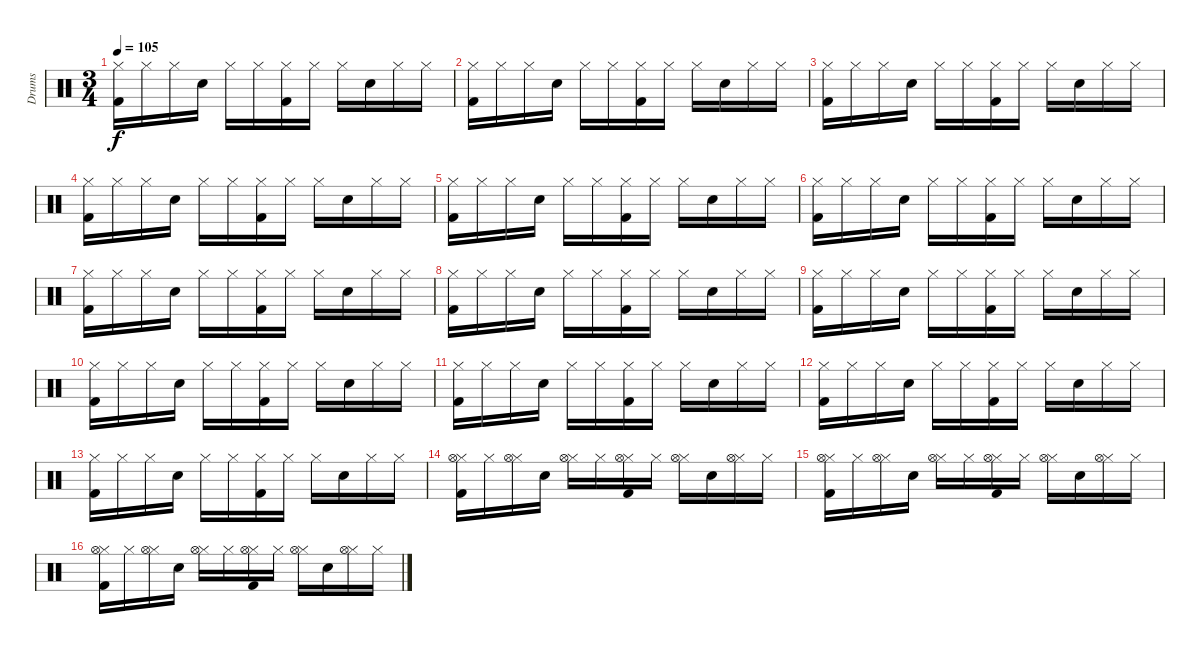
\track ("Drums" "Drums") {instrument percussion}
\staff {score}
\articulation defaults
\ts (3 4)
\tempo 105
\clef neutral
\ks c
("Hi-Hat (closed)" "Kick (hit) 2").16{dy f} "Hi-Hat (closed)".16 "Hi-Hat (closed)".16 "Snare (hit) 2".16 "Hi-Hat (closed)".16 "Hi-Hat (closed)".16 ("Hi-Hat (closed)" "Kick (hit) 2").16 "Hi-Hat (closed)".16 "Hi-Hat (closed)".16 "Snare (hit) 2".16 "Hi-Hat (closed)".16 "Hi-Hat (closed)".16 |
("Hi-Hat (closed)" "Kick (hit) 2").16 "Hi-Hat (closed)".16 "Hi-Hat (closed)".16 "Snare (hit) 2".16 "Hi-Hat (closed)".16 "Hi-Hat (closed)".16 ("Hi-Hat (closed)" "Kick (hit) 2").16 "Hi-Hat (closed)".16 "Hi-Hat (closed)".16 "Snare (hit) 2".16 "Hi-Hat (closed)".16 "Hi-Hat (closed)".16 |
("Hi-Hat (closed)" "Kick (hit) 2").16 "Hi-Hat (closed)".16 "Hi-Hat (closed)".16 "Snare (hit) 2".16 "Hi-Hat (closed)".16 "Hi-Hat (closed)".16 ("Hi-Hat (closed)" "Kick (hit) 2").16 "Hi-Hat (closed)".16 "Hi-Hat (closed)".16 "Snare (hit) 2".16 "Hi-Hat (closed)".16 "Hi-Hat (closed)".16 |
("Hi-Hat (closed)" "Kick (hit) 2").16 "Hi-Hat (closed)".16 "Hi-Hat (closed)".16 "Snare (hit) 2".16 "Hi-Hat (closed)".16 "Hi-Hat (closed)".16 ("Hi-Hat (closed)" "Kick (hit) 2").16 "Hi-Hat (closed)".16 "Hi-Hat (closed)".16 "Snare (hit) 2".16 "Hi-Hat (closed)".16 "Hi-Hat (closed)".16 |
("Hi-Hat (closed)" "Kick (hit) 2").16 "Hi-Hat (closed)".16 "Hi-Hat (closed)".16 "Snare (hit) 2".16 "Hi-Hat (closed)".16 "Hi-Hat (closed)".16 ("Hi-Hat (closed)" "Kick (hit) 2").16 "Hi-Hat (closed)".16 "Hi-Hat (closed)".16 "Snare (hit) 2".16 "Hi-Hat (closed)".16 "Hi-Hat (closed)".16 |
("Hi-Hat (closed)" "Kick (hit) 2").16 "Hi-Hat (closed)".16 "Hi-Hat (closed)".16 "Snare (hit) 2".16 "Hi-Hat (closed)".16 "Hi-Hat (closed)".16 ("Hi-Hat (closed)" "Kick (hit) 2").16 "Hi-Hat (closed)".16 "Hi-Hat (closed)".16 "Snare (hit) 2".16 "Hi-Hat (closed)".16 "Hi-Hat (closed)".16 |
("Hi-Hat (closed)" "Kick (hit) 2").16 "Hi-Hat (closed)".16 "Hi-Hat (closed)".16 "Snare (hit) 2".16 "Hi-Hat (closed)".16 "Hi-Hat (closed)".16 ("Hi-Hat (closed)" "Kick (hit) 2").16 "Hi-Hat (closed)".16 "Hi-Hat (closed)".16 "Snare (hit) 2".16 "Hi-Hat (closed)".16 "Hi-Hat (closed)".16 |
("Hi-Hat (closed)" "Kick (hit) 2").16 "Hi-Hat (closed)".16 "Hi-Hat (closed)".16 "Snare (hit) 2".16 "Hi-Hat (closed)".16 "Hi-Hat (closed)".16 ("Hi-Hat (closed)" "Kick (hit) 2").16 "Hi-Hat (closed)".16 "Hi-Hat (closed)".16 "Snare (hit) 2".16 "Hi-Hat (closed)".16 "Hi-Hat (closed)".16 |
("Hi-Hat (closed)" "Kick (hit) 2").16 "Hi-Hat (closed)".16 "Hi-Hat (closed)".16 "Snare (hit) 2".16 "Hi-Hat (closed)".16 "Hi-Hat (closed)".16 ("Hi-Hat (closed)" "Kick (hit) 2").16 "Hi-Hat (closed)".16 "Hi-Hat (closed)".16 "Snare (hit) 2".16 "Hi-Hat (closed)".16 "Hi-Hat (closed)".16 |
("Hi-Hat (closed)" "Kick (hit) 2").16 "Hi-Hat (closed)".16 "Hi-Hat (closed)".16 "Snare (hit) 2".16 "Hi-Hat (closed)".16 "Hi-Hat (closed)".16 ("Hi-Hat (closed)" "Kick (hit) 2").16 "Hi-Hat (closed)".16 "Hi-Hat (closed)".16 "Snare (hit) 2".16 "Hi-Hat (closed)".16 "Hi-Hat (closed)".16 |
("Hi-Hat (closed)" "Kick (hit) 2").16 "Hi-Hat (closed)".16 "Hi-Hat (closed)".16 "Snare (hit) 2".16 "Hi-Hat (closed)".16 "Hi-Hat (closed)".16 ("Hi-Hat (closed)" "Kick (hit) 2").16 "Hi-Hat (closed)".16 "Hi-Hat (closed)".16 "Snare (hit) 2".16 "Hi-Hat (closed)".16 "Hi-Hat (closed)".16 |
("Hi-Hat (closed)" "Kick (hit) 2").16 "Hi-Hat (closed)".16 "Hi-Hat (closed)".16 "Snare (hit) 2".16 "Hi-Hat (closed)".16 "Hi-Hat (closed)".16 ("Hi-Hat (closed)" "Kick (hit) 2").16 "Hi-Hat (closed)".16 "Hi-Hat (closed)".16 "Snare (hit) 2".16 "Hi-Hat (closed)".16 "Hi-Hat (closed)".16 |
("Hi-Hat (closed)" "Kick (hit) 2").16 "Hi-Hat (closed)".16 "Hi-Hat (closed)".16 "Snare (hit) 2".16 "Hi-Hat (closed)".16 "Hi-Hat (closed)".16 ("Hi-Hat (closed)" "Kick (hit) 2").16 "Hi-Hat (closed)".16 "Hi-Hat (closed)".16 "Snare (hit) 2".16 "Hi-Hat (closed)".16 "Hi-Hat (closed)".16 |
("Hi-Hat (closed)" "Kick (hit) 2" "Hi-Hat (open)").16 "Hi-Hat (closed)".16 ("Hi-Hat (closed)" "Hi-Hat (open)").16 "Snare (hit) 2".16 ("Hi-Hat (closed)" "Hi-Hat (open)").16 "Hi-Hat (closed)".16 ("Hi-Hat (closed)" "Kick (hit) 2" "Hi-Hat (open)").16 "Hi-Hat (closed)".16 ("Hi-Hat (closed)" "Hi-Hat (open)").16 "Snare (hit) 2".16 ("Hi-Hat (closed)" "Hi-Hat (open)").16 "Hi-Hat (closed)".16 |
("Hi-Hat (closed)" "Kick (hit) 2" "Hi-Hat (open)").16 "Hi-Hat (closed)".16 ("Hi-Hat (closed)" "Hi-Hat (open)").16 "Snare (hit) 2".16 ("Hi-Hat (closed)" "Hi-Hat (open)").16 "Hi-Hat (closed)".16 ("Hi-Hat (closed)" "Kick (hit) 2" "Hi-Hat (open)").16 "Hi-Hat (closed)".16 ("Hi-Hat (closed)" "Hi-Hat (open)").16 "Snare (hit) 2".16 ("Hi-Hat (closed)" "Hi-Hat (open)").16 "Hi-Hat (closed)".16 |
("Hi-Hat (closed)" "Kick (hit) 2" "Hi-Hat (open)").16 "Hi-Hat (closed)".16 ("Hi-Hat (closed)" "Hi-Hat (open)").16 "Snare (hit) 2".16 ("Hi-Hat (closed)" "Hi-Hat (open)").16 "Hi-Hat (closed)".16 ("Hi-Hat (closed)" "Kick (hit) 2" "Hi-Hat (open)").16 "Hi-Hat (closed)".16 ("Hi-Hat (closed)" "Hi-Hat (open)").16 "Snare (hit) 2".16 ("Hi-Hat (closed)" "Hi-Hat (open)").16 "Hi-Hat (closed)".16
